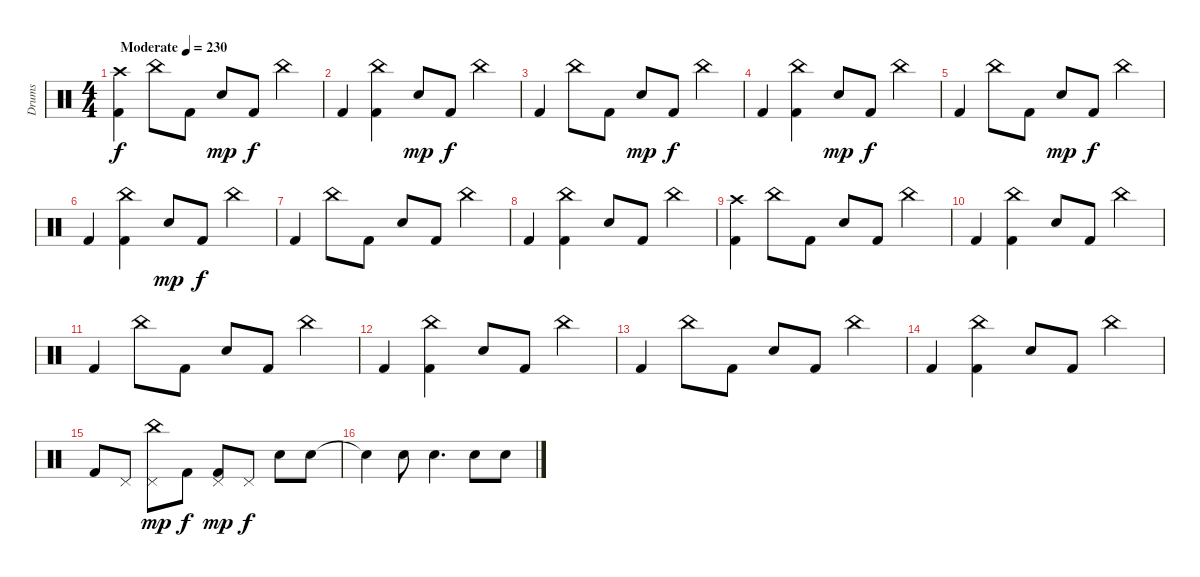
\track ("Drums" "Drums") {instrument percussion}
\staff {score}
\articulation defaults
\ts (4 4)
\tempo (230 "Moderate")
\clef neutral
\ks c
("Crash high (hit)" "Kick (hit) 2").4{dy f} "China (hit)".8 "Kick (hit) 2".8 "Electric Snare (hit)".8{dy mp} "Kick (hit) 2".8{dy f} "China (hit)".4 |
"Kick (hit) 2".4 ("China (hit)" "Kick (hit) 2").4 "Electric Snare (hit)".8{dy mp} "Kick (hit) 2".8{dy f} "China (hit)".4 |
"Kick (hit) 2".4 "China (hit)".8 "Kick (hit) 2".8 "Electric Snare (hit)".8{dy mp} "Kick (hit) 2".8{dy f} "China (hit)".4 |
"Kick (hit) 2".4 ("China (hit)" "Kick (hit) 2").4 "Electric Snare (hit)".8{dy mp} "Kick (hit) 2".8{dy f} "China (hit)".4 |
"Kick (hit) 2".4 "China (hit)".8 "Kick (hit) 2".8 "Electric Snare (hit)".8{dy mp} "Kick (hit) 2".8{dy f} "China (hit)".4 |
"Kick (hit) 2".4 ("China (hit)" "Kick (hit) 2").4 "Electric Snare (hit)".8{dy mp} "Kick (hit) 2".8{dy f} "China (hit)".4 |
"Kick (hit) 2".4 "China (hit)".8 "Kick (hit) 2".8 "Electric Snare (hit)".8 "Kick (hit) 2".8 "China (hit)".4 |
"Kick (hit) 2".4 ("China (hit)" "Kick (hit) 2").4 "Electric Snare (hit)".8 "Kick (hit) 2".8 "China (hit)".4 |
("Crash high (hit)" "Kick (hit) 2").4 "China (hit)".8 "Kick (hit) 2".8 "Electric Snare (hit)".8 "Kick (hit) 2".8 "China (hit)".4 |
"Kick (hit) 2".4 ("China (hit)" "Kick (hit) 2").4 "Electric Snare (hit)".8 "Kick (hit) 2".8 "China (hit)".4 |
"Kick (hit) 2".4 "China (hit)".8 "Kick (hit) 2".8 "Electric Snare (hit)".8 "Kick (hit) 2".8 "China (hit)".4 |
"Kick (hit) 2".4 ("China (hit)" "Kick (hit) 2").4 "Electric Snare (hit)".8 "Kick (hit) 2".8 "China (hit)".4 |
"Kick (hit) 2".4 "China (hit)".8 "Kick (hit) 2".8 "Electric Snare (hit)".8 "Kick (hit) 2".8 "China (hit)".4 |
"Kick (hit) 2".4 ("China (hit)" "Kick (hit) 2").4 "Electric Snare (hit)".8 "Kick (hit) 2".8 "China (hit)".4 |
"Kick (hit) 2".8 "Pedal Hi-Hat (hit)".8 ("China (hit)" "Pedal Hi-Hat (hit)").8{dy mp} "Kick (hit) 2".8{dy f} ("Pedal Hi-Hat (hit)" "Kick (hit) 2").8{dy mp} "Pedal Hi-Hat (hit)".8{dy f} "Electric Snare (hit)".8 "Electric Snare (hit)".8 |
"Snare (hit)"{t}.4 "Electric Snare (hit)".8 "Electric Snare (hit)".4{d} "Electric Snare (hit)".8 "Electric Snare (hit)".8
